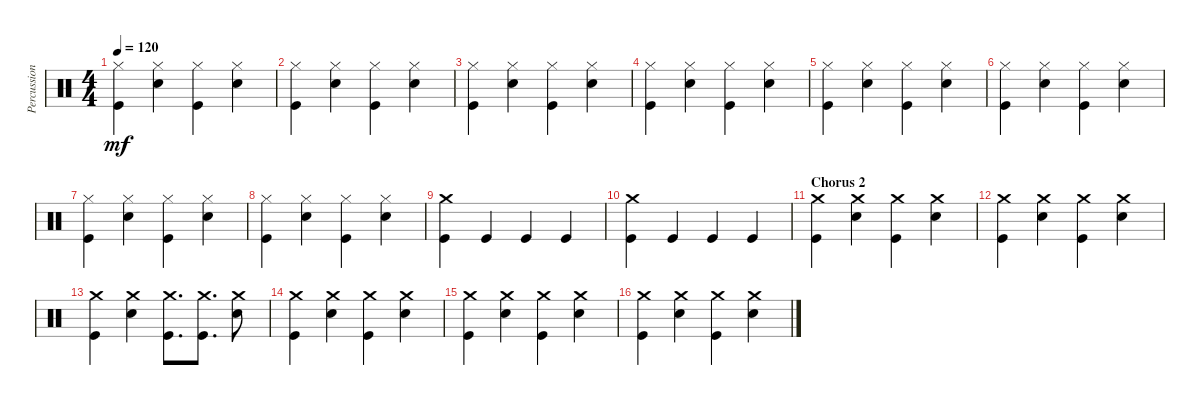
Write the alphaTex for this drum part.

\track ("Percussion" "Percussion") {instrument percussion}
\staff {score}
\articulation defaults
\ts (4 4)
\tempo 120
\clef neutral
\ks c
("Hi-Hat (closed)" "Kick (hit)").4{dy mf} ("Hi-Hat (closed)" "Snare (hit) 2").4 ("Hi-Hat (closed)" "Kick (hit)").4 ("Hi-Hat (closed)" "Snare (hit) 2").4 |
("Hi-Hat (closed)" "Kick (hit)").4 ("Hi-Hat (closed)" "Snare (hit) 2").4 ("Hi-Hat (closed)" "Kick (hit)").4 ("Hi-Hat (closed)" "Snare (hit) 2").4 |
("Hi-Hat (closed)" "Kick (hit)").4 ("Hi-Hat (closed)" "Snare (hit) 2").4 ("Hi-Hat (closed)" "Kick (hit)").4 ("Hi-Hat (closed)" "Snare (hit) 2").4 |
("Hi-Hat (closed)" "Kick (hit)").4 ("Hi-Hat (closed)" "Snare (hit) 2").4 ("Hi-Hat (closed)" "Kick (hit)").4 ("Hi-Hat (closed)" "Snare (hit) 2").4 |
("Hi-Hat (closed)" "Kick (hit)").4 ("Hi-Hat (closed)" "Snare (hit) 2").4 ("Hi-Hat (closed)" "Kick (hit)").4 ("Hi-Hat (closed)" "Snare (hit) 2").4 |
("Hi-Hat (closed)" "Kick (hit)").4 ("Hi-Hat (closed)" "Snare (hit) 2").4 ("Hi-Hat (closed)" "Kick (hit)").4 ("Hi-Hat (closed)" "Snare (hit) 2").4 |
("Hi-Hat (closed)" "Kick (hit)").4 ("Hi-Hat (closed)" "Snare (hit) 2").4 ("Hi-Hat (closed)" "Kick (hit)").4 ("Hi-Hat (closed)" "Snare (hit) 2").4 |
("Hi-Hat (closed)" "Kick (hit)").4 ("Hi-Hat (closed)" "Snare (hit) 2").4 ("Hi-Hat (closed)" "Kick (hit)").4 ("Hi-Hat (closed)" "Snare (hit) 2").4 |
("Crash medium (hit)" "Kick (hit)").4 "Kick (hit)".4 "Kick (hit)".4 "Kick (hit)".4 |
("Kick (hit)" "Crash medium (hit)").4 "Kick (hit)".4 "Kick (hit)".4 "Kick (hit)".4 |
\section ("" "Chorus 2")
("Crash medium (hit)" "Kick (hit)").4 ("Crash medium (hit)" "Snare (hit) 2").4 ("Crash medium (hit)" "Kick (hit)").4 ("Crash medium (hit)" "Snare (hit) 2").4 |
("Crash medium (hit)" "Kick (hit)").4 ("Crash medium (hit)" "Snare (hit) 2").4 ("Crash medium (hit)" "Kick (hit)").4 ("Crash medium (hit)" "Snare (hit) 2").4 |
("Crash medium (hit)" "Kick (hit)").4 ("Crash medium (hit)" "Snare (hit) 2").4 ("Crash medium (hit)" "Kick (hit)").8{d} ("Crash medium (hit)" "Kick (hit)").8{d} ("Crash medium (hit)" "Snare (hit) 2").8 |
("Crash medium (hit)" "Kick (hit)").4 ("Crash medium (hit)" "Snare (hit) 2").4 ("Crash medium (hit)" "Kick (hit)").4 ("Crash medium (hit)" "Snare (hit) 2").4 |
("Crash medium (hit)" "Kick (hit)").4 ("Crash medium (hit)" "Snare (hit) 2").4 ("Crash medium (hit)" "Kick (hit)").4 ("Crash medium (hit)" "Snare (hit) 2").4 |
("Crash medium (hit)" "Kick (hit)").4 ("Crash medium (hit)" "Snare (hit) 2").4 ("Crash medium (hit)" "Kick (hit)").4 ("Crash medium (hit)" "Snare (hit) 2").4
